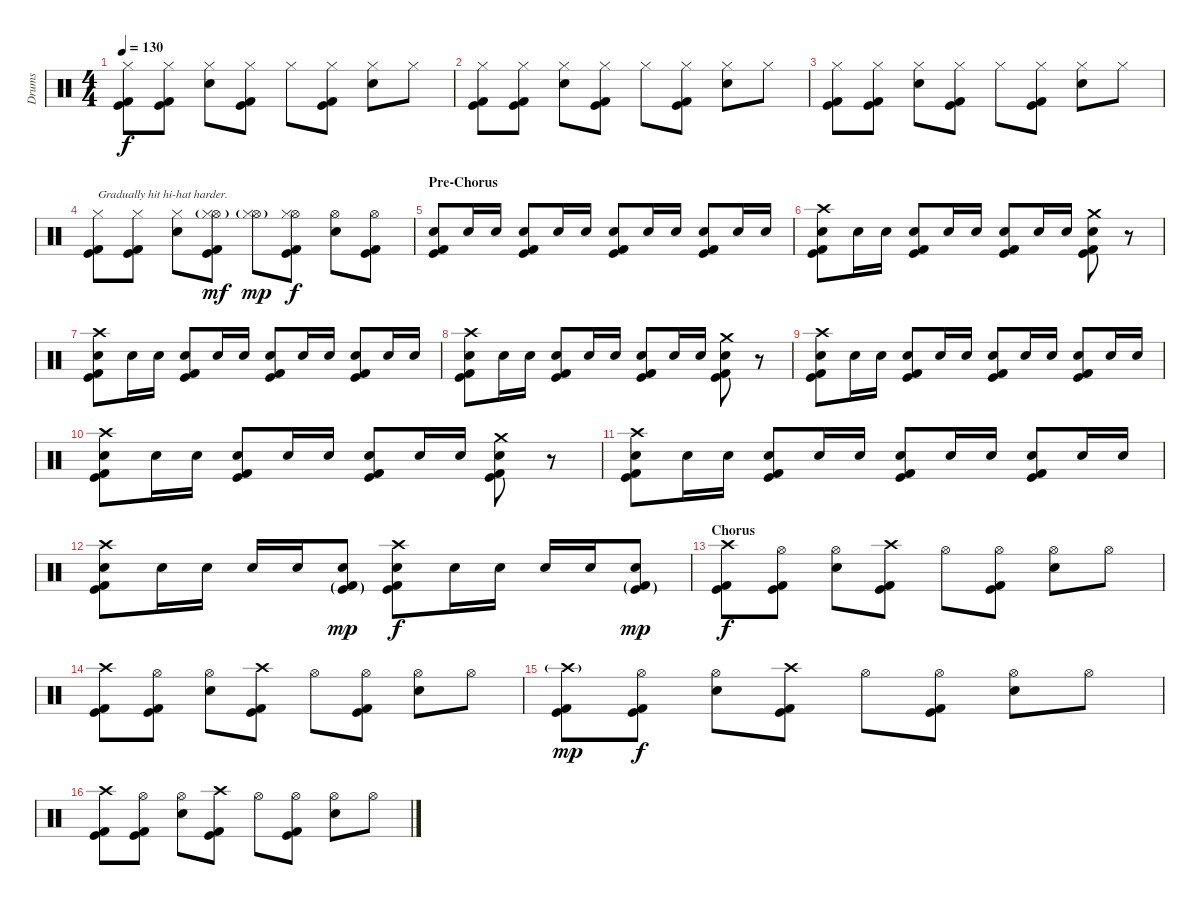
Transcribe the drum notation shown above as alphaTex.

\track ("Drums" "Drums") {instrument percussion}
\staff {score}
\articulation defaults
\ts (4 4)
\tempo 130
\clef neutral
\ks c
("Hi-Hat (closed)" "Kick (hit) 2" "Kick (hit)").8{dy f} ("Hi-Hat (closed)" "Kick (hit) 2" "Kick (hit)").8 ("Hi-Hat (closed)" "Electric Snare (hit)").8 ("Hi-Hat (closed)" "Kick (hit) 2" "Kick (hit)").8 "Hi-Hat (closed)".8 ("Hi-Hat (closed)" "Kick (hit) 2" "Kick (hit)").8 ("Hi-Hat (closed)" "Electric Snare (hit)").8 "Hi-Hat (closed)".8 |
("Hi-Hat (closed)" "Kick (hit) 2" "Kick (hit)").8 ("Hi-Hat (closed)" "Kick (hit) 2" "Kick (hit)").8 ("Hi-Hat (closed)" "Electric Snare (hit)").8 ("Hi-Hat (closed)" "Kick (hit) 2" "Kick (hit)").8 "Hi-Hat (closed)".8 ("Hi-Hat (closed)" "Kick (hit) 2" "Kick (hit)").8 ("Hi-Hat (closed)" "Electric Snare (hit)").8 "Hi-Hat (closed)".8 |
("Hi-Hat (closed)" "Kick (hit) 2" "Kick (hit)").8 ("Hi-Hat (closed)" "Kick (hit) 2" "Kick (hit)").8 ("Hi-Hat (closed)" "Electric Snare (hit)").8 ("Hi-Hat (closed)" "Kick (hit) 2" "Kick (hit)").8 "Hi-Hat (closed)".8 ("Hi-Hat (closed)" "Kick (hit) 2" "Kick (hit)").8 ("Hi-Hat (closed)" "Electric Snare (hit)").8 "Hi-Hat (closed)".8 |
("Hi-Hat (closed)" "Kick (hit) 2" "Kick (hit)").8{txt "Gradually hit hi-hat harder."} ("Hi-Hat (closed)" "Kick (hit) 2" "Kick (hit)").8 ("Hi-Hat (closed)" "Electric Snare (hit)").8 ("Hi-Hat (open)"{g} "Hi-Hat (closed)"{g} "Kick (hit) 2" "Kick (hit)").8{dy mf} ("Hi-Hat (open)"{g} "Hi-Hat (closed)"{g}).8{dy mp} ("Hi-Hat (open)" "Hi-Hat (closed)" "Kick (hit) 2" "Kick (hit)").8{dy f} ("Hi-Hat (open)" "Electric Snare (hit)").8 ("Hi-Hat (open)" "Kick (hit) 2" "Kick (hit)").8 |
\section ("" "Pre-Chorus")
("Electric Snare (hit)" "Kick (hit) 2" "Kick (hit)").8 "Electric Snare (hit)".16 "Electric Snare (hit)".16 ("Electric Snare (hit)" "Kick (hit) 2" "Kick (hit)").8 "Electric Snare (hit)".16 "Electric Snare (hit)".16 ("Electric Snare (hit)" "Kick (hit) 2" "Kick (hit)").8 "Electric Snare (hit)".16 "Electric Snare (hit)".16 ("Electric Snare (hit)" "Kick (hit) 2" "Kick (hit)").8 "Electric Snare (hit)".16 "Electric Snare (hit)".16 |
("Crash high (hit)" "Electric Snare (hit)" "Kick (hit) 2" "Kick (hit)").8 "Electric Snare (hit)".16 "Electric Snare (hit)".16 ("Electric Snare (hit)" "Kick (hit) 2" "Kick (hit)").8 "Electric Snare (hit)".16 "Electric Snare (hit)".16 ("Electric Snare (hit)" "Kick (hit) 2" "Kick (hit)").8 "Electric Snare (hit)".16 "Electric Snare (hit)".16 ("Crash medium (hit)" "Electric Snare (hit)" "Kick (hit) 2" "Kick (hit)").8 r.8 |
("Crash high (hit)" "Electric Snare (hit)" "Kick (hit) 2" "Kick (hit)").8 "Electric Snare (hit)".16 "Electric Snare (hit)".16 ("Electric Snare (hit)" "Kick (hit) 2" "Kick (hit)").8 "Electric Snare (hit)".16 "Electric Snare (hit)".16 ("Electric Snare (hit)" "Kick (hit) 2" "Kick (hit)").8 "Electric Snare (hit)".16 "Electric Snare (hit)".16 ("Electric Snare (hit)" "Kick (hit) 2" "Kick (hit)").8 "Electric Snare (hit)".16 "Electric Snare (hit)".16 |
("Crash high (hit)" "Electric Snare (hit)" "Kick (hit) 2" "Kick (hit)").8 "Electric Snare (hit)".16 "Electric Snare (hit)".16 ("Electric Snare (hit)" "Kick (hit) 2" "Kick (hit)").8 "Electric Snare (hit)".16 "Electric Snare (hit)".16 ("Electric Snare (hit)" "Kick (hit) 2" "Kick (hit)").8 "Electric Snare (hit)".16 "Electric Snare (hit)".16 ("Crash medium (hit)" "Electric Snare (hit)" "Kick (hit) 2" "Kick (hit)").8 r.8 |
("Crash high (hit)" "Electric Snare (hit)" "Kick (hit) 2" "Kick (hit)").8 "Electric Snare (hit)".16 "Electric Snare (hit)".16 ("Electric Snare (hit)" "Kick (hit) 2" "Kick (hit)").8 "Electric Snare (hit)".16 "Electric Snare (hit)".16 ("Electric Snare (hit)" "Kick (hit) 2" "Kick (hit)").8 "Electric Snare (hit)".16 "Electric Snare (hit)".16 ("Electric Snare (hit)" "Kick (hit) 2" "Kick (hit)").8 "Electric Snare (hit)".16 "Electric Snare (hit)".16 |
("Crash high (hit)" "Electric Snare (hit)" "Kick (hit) 2" "Kick (hit)").8 "Electric Snare (hit)".16 "Electric Snare (hit)".16 ("Electric Snare (hit)" "Kick (hit) 2" "Kick (hit)").8 "Electric Snare (hit)".16 "Electric Snare (hit)".16 ("Electric Snare (hit)" "Kick (hit) 2" "Kick (hit)").8 "Electric Snare (hit)".16 "Electric Snare (hit)".16 ("Crash medium (hit)" "Electric Snare (hit)" "Kick (hit) 2" "Kick (hit)").8 r.8 |
("Crash high (hit)" "Electric Snare (hit)" "Kick (hit) 2" "Kick (hit)").8 "Electric Snare (hit)".16 "Electric Snare (hit)".16 ("Electric Snare (hit)" "Kick (hit) 2" "Kick (hit)").8 "Electric Snare (hit)".16 "Electric Snare (hit)".16 ("Electric Snare (hit)" "Kick (hit) 2" "Kick (hit)").8 "Electric Snare (hit)".16 "Electric Snare (hit)".16 ("Electric Snare (hit)" "Kick (hit) 2" "Kick (hit)").8 "Electric Snare (hit)".16 "Electric Snare (hit)".16 |
("Crash high (hit)" "Electric Snare (hit)" "Kick (hit) 2" "Kick (hit)").8 "Electric Snare (hit)".16 "Electric Snare (hit)".16 "Electric Snare (hit)".16 "Electric Snare (hit)".16 ("Electric Snare (hit)" "Kick (hit) 2"{g} "Kick (hit)"{g}).8{dy mp} ("Crash high (hit)" "Electric Snare (hit)" "Kick (hit) 2" "Kick (hit)").8{dy f} "Electric Snare (hit)".16 "Electric Snare (hit)".16 "Electric Snare (hit)".16 "Electric Snare (hit)".16 ("Electric Snare (hit)" "Kick (hit) 2"{g} "Kick (hit)"{g}).8{dy mp} |
\section ("" "Chorus")
("Crash high (hit)" "Kick (hit) 2" "Kick (hit)").8{dy f} ("Hi-Hat (open)" "Kick (hit) 2" "Kick (hit)").8 ("Hi-Hat (open)" "Electric Snare (hit)").8 ("Crash high (hit)" "Kick (hit) 2" "Kick (hit)").8 "Hi-Hat (open)".8 ("Hi-Hat (open)" "Kick (hit) 2" "Kick (hit)").8 ("Hi-Hat (open)" "Electric Snare (hit)").8 "Hi-Hat (open)".8 |
("Crash high (hit)" "Kick (hit) 2" "Kick (hit)").8 ("Hi-Hat (open)" "Kick (hit) 2" "Kick (hit)").8 ("Hi-Hat (open)" "Electric Snare (hit)").8 ("Crash high (hit)" "Kick (hit) 2" "Kick (hit)").8 "Hi-Hat (open)".8 ("Hi-Hat (open)" "Kick (hit) 2" "Kick (hit)").8 ("Hi-Hat (open)" "Electric Snare (hit)").8 "Hi-Hat (open)".8 |
("Crash high (hit)"{g} "Kick (hit) 2" "Kick (hit)").8{dy mp} ("Hi-Hat (open)" "Kick (hit) 2" "Kick (hit)").8{dy f} ("Hi-Hat (open)" "Electric Snare (hit)").8 ("Crash high (hit)" "Kick (hit) 2" "Kick (hit)").8 "Hi-Hat (open)".8 ("Hi-Hat (open)" "Kick (hit) 2" "Kick (hit)").8 ("Hi-Hat (open)" "Electric Snare (hit)").8 "Hi-Hat (open)".8 |
("Crash high (hit)" "Kick (hit) 2" "Kick (hit)").8 ("Hi-Hat (open)" "Kick (hit) 2" "Kick (hit)").8 ("Hi-Hat (open)" "Electric Snare (hit)").8 ("Crash high (hit)" "Kick (hit) 2" "Kick (hit)").8 "Hi-Hat (open)".8 ("Hi-Hat (open)" "Kick (hit) 2" "Kick (hit)").8 ("Hi-Hat (open)" "Electric Snare (hit)").8 "Hi-Hat (open)".8
